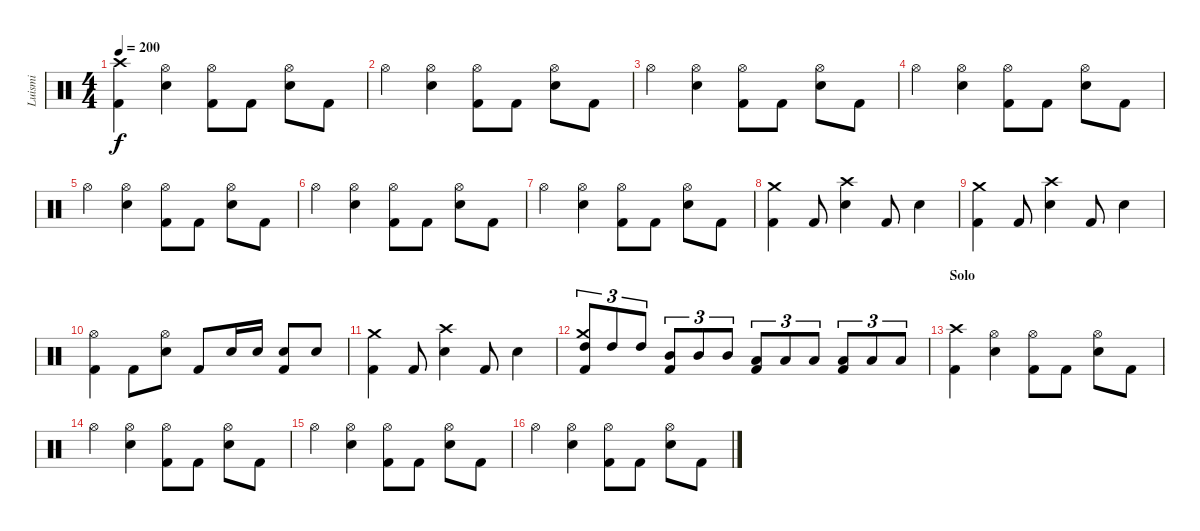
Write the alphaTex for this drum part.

\track ("Luismi" "Luismi") {instrument percussion}
\staff {score}
\articulation defaults
\ts (4 4)
\tempo 200
\clef neutral
\ks c
("Crash high (hit)" "Kick (hit) 2").4{dy f} ("Hi-Hat (open)" "Snare (hit) 2").4 ("Hi-Hat (open)" "Kick (hit) 2").8 "Kick (hit) 2".8 ("Hi-Hat (open)" "Snare (hit) 2").8 "Kick (hit) 2".8 |
"Hi-Hat (open)".4 ("Hi-Hat (open)" "Snare (hit) 2").4 ("Hi-Hat (open)" "Kick (hit) 2").8 "Kick (hit) 2".8 ("Hi-Hat (open)" "Snare (hit) 2").8 "Kick (hit) 2".8 |
"Hi-Hat (open)".4 ("Hi-Hat (open)" "Snare (hit) 2").4 ("Hi-Hat (open)" "Kick (hit) 2").8 "Kick (hit) 2".8 ("Hi-Hat (open)" "Snare (hit) 2").8 "Kick (hit) 2".8 |
"Hi-Hat (open)".4 ("Hi-Hat (open)" "Snare (hit) 2").4 ("Hi-Hat (open)" "Kick (hit) 2").8 "Kick (hit) 2".8 ("Hi-Hat (open)" "Snare (hit) 2").8 "Kick (hit) 2".8 |
"Hi-Hat (open)".4 ("Hi-Hat (open)" "Snare (hit) 2").4 ("Hi-Hat (open)" "Kick (hit) 2").8 "Kick (hit) 2".8 ("Hi-Hat (open)" "Snare (hit) 2").8 "Kick (hit) 2".8 |
"Hi-Hat (open)".4 ("Hi-Hat (open)" "Snare (hit) 2").4 ("Hi-Hat (open)" "Kick (hit) 2").8 "Kick (hit) 2".8 ("Hi-Hat (open)" "Snare (hit) 2").8 "Kick (hit) 2".8 |
"Hi-Hat (open)".4 ("Hi-Hat (open)" "Snare (hit) 2").4 ("Hi-Hat (open)" "Kick (hit) 2").8 "Kick (hit) 2".8 ("Hi-Hat (open)" "Snare (hit) 2").8 "Kick (hit) 2".8 |
("Crash medium (hit)" "Kick (hit) 2").4 "Kick (hit) 2".8 ("Crash high (hit)" "Snare (hit) 2").4 "Kick (hit) 2".8 "Snare (hit) 2".4 |
("Crash medium (hit)" "Kick (hit) 2").4 "Kick (hit) 2".8 ("Crash high (hit)" "Snare (hit) 2").4 "Kick (hit) 2".8 "Snare (hit) 2".4 |
("Hi-Hat (open)" "Kick (hit) 2").4 "Kick (hit) 2".8 ("Hi-Hat (open)" "Snare (hit) 2").8 "Kick (hit) 2".8 "Snare (hit) 2".16 "Snare (hit) 2".16 ("Snare (hit) 2" "Kick (hit) 2").8 "Snare (hit) 2".8 |
("Crash medium (hit)" "Kick (hit) 2").4 "Kick (hit) 2".8 ("Crash high (hit)" "Snare (hit) 2").4 "Kick (hit) 2".8 "Snare (hit) 2".4 |
("Crash medium (hit)" "High Tom (hit)" "Kick (hit) 2").8{tu (3 2)} "High Tom (hit)".8{tu (3 2)} "High Tom (hit)".8{tu (3 2)} ("Mid Tom (hit)" "Kick (hit) 2").8{tu (3 2)} "Mid Tom (hit)".8{tu (3 2)} "Mid Tom (hit)".8{tu (3 2)} ("Low Tom (hit)" "Kick (hit) 2").8{tu (3 2)} "Low Tom (hit)".8{tu (3 2)} "Low Tom (hit)".8{tu (3 2)} ("Low Floor Tom (hit)" "Kick (hit) 2").8{tu (3 2)} "Low Floor Tom (hit)".8{tu (3 2)} "Low Floor Tom (hit)".8{tu (3 2)} |
\section ("" "Solo")
("Crash high (hit)" "Kick (hit) 2").4 ("Hi-Hat (open)" "Snare (hit) 2").4 ("Hi-Hat (open)" "Kick (hit) 2").8 "Kick (hit) 2".8 ("Hi-Hat (open)" "Snare (hit) 2").8 "Kick (hit) 2".8 |
"Hi-Hat (open)".4 ("Hi-Hat (open)" "Snare (hit) 2").4 ("Hi-Hat (open)" "Kick (hit) 2").8 "Kick (hit) 2".8 ("Hi-Hat (open)" "Snare (hit) 2").8 "Kick (hit) 2".8 |
"Hi-Hat (open)".4 ("Hi-Hat (open)" "Snare (hit) 2").4 ("Hi-Hat (open)" "Kick (hit) 2").8 "Kick (hit) 2".8 ("Hi-Hat (open)" "Snare (hit) 2").8 "Kick (hit) 2".8 |
"Hi-Hat (open)".4 ("Hi-Hat (open)" "Snare (hit) 2").4 ("Hi-Hat (open)" "Kick (hit) 2").8 "Kick (hit) 2".8 ("Hi-Hat (open)" "Snare (hit) 2").8 "Kick (hit) 2".8
